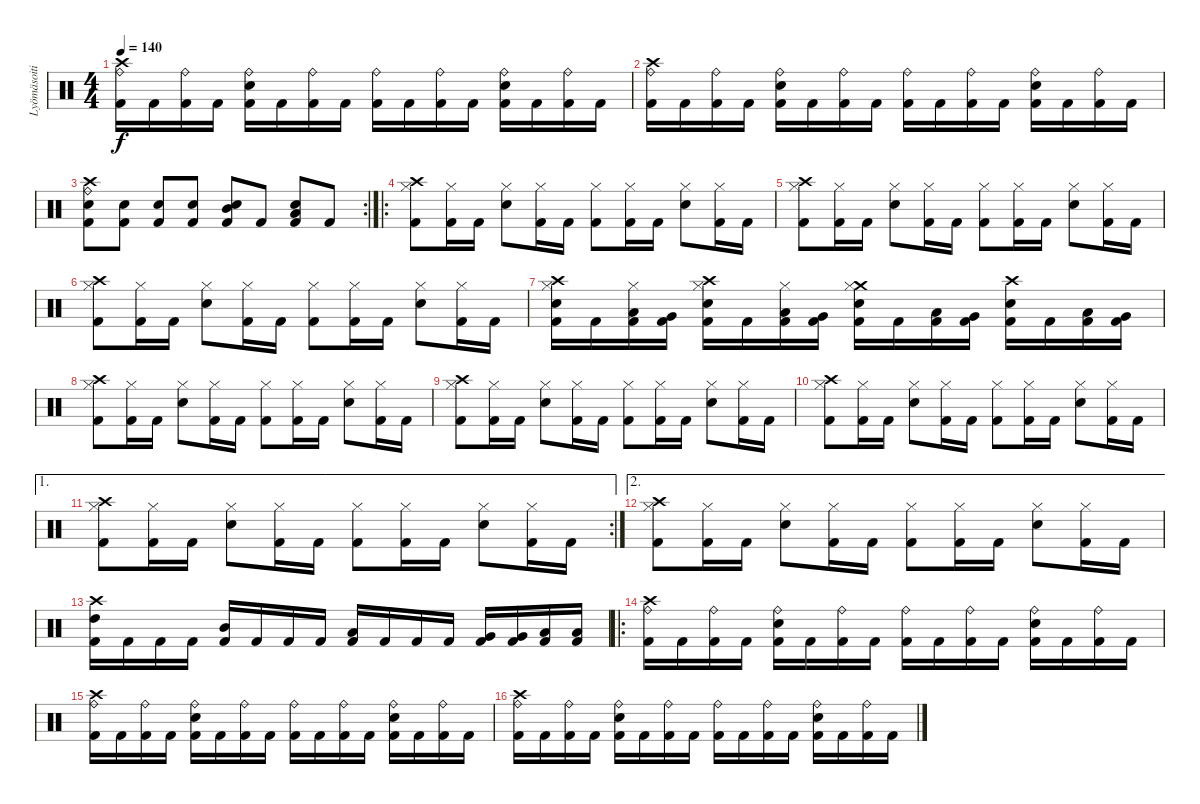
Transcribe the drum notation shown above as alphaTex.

\track ("Lyömäsoitin" "Lyömäsoiti") {instrument percussion}
\staff {score}
\articulation defaults
\ts (4 4)
\tempo 140
\clef neutral
\ks c
("Crash high (hit)" "Ride (bell)" "Kick (hit) 2").16{dy f} "Kick (hit) 2".16 ("Ride (bell)" "Kick (hit) 2").16 "Kick (hit) 2".16 ("Ride (bell)" "Electric Snare (hit)" "Kick (hit) 2").16 "Kick (hit) 2".16 ("Ride (bell)" "Kick (hit) 2").16 "Kick (hit) 2".16 ("Ride (bell)" "Kick (hit) 2").16 "Kick (hit) 2".16 ("Ride (bell)" "Kick (hit) 2").16 "Kick (hit) 2".16 ("Ride (bell)" "Electric Snare (hit)" "Kick (hit) 2").16 "Kick (hit) 2".16 ("Ride (bell)" "Kick (hit) 2").16 "Kick (hit) 2".16 |
("Crash high (hit)" "Ride (bell)" "Kick (hit) 2").16 "Kick (hit) 2".16 ("Ride (bell)" "Kick (hit) 2").16 "Kick (hit) 2".16 ("Ride (bell)" "Electric Snare (hit)" "Kick (hit) 2").16 "Kick (hit) 2".16 ("Ride (bell)" "Kick (hit) 2").16 "Kick (hit) 2".16 ("Ride (bell)" "Kick (hit) 2").16 "Kick (hit) 2".16 ("Ride (bell)" "Kick (hit) 2").16 "Kick (hit) 2".16 ("Ride (bell)" "Electric Snare (hit)" "Kick (hit) 2").16 "Kick (hit) 2".16 ("Ride (bell)" "Kick (hit) 2").16 "Kick (hit) 2".16 |
\rc 2
("Crash high (hit)" "Ride (bell)" "Electric Snare (hit)" "Kick (hit) 2").8 ("Electric Snare (hit)" "Kick (hit) 2").8 ("Electric Snare (hit)" "Kick (hit) 2").8 ("Electric Snare (hit)" "Kick (hit) 2").8 ("Mid Tom (hit)" "Electric Snare (hit)" "Kick (hit) 2").8 "Kick (hit) 2".8 ("Low Tom (hit)" "Electric Snare (hit)" "Kick (hit) 2").8 "Kick (hit) 2".8 |
\ro
("Crash high (hit)" "Hi-Hat (closed)" "Kick (hit) 2").8 ("Hi-Hat (closed)" "Kick (hit) 2").16 "Kick (hit) 2".16 ("Hi-Hat (closed)" "Electric Snare (hit)").8 ("Hi-Hat (closed)" "Kick (hit) 2").16 "Kick (hit) 2".16 ("Hi-Hat (closed)" "Kick (hit) 2").8 ("Hi-Hat (closed)" "Kick (hit) 2").16 "Kick (hit) 2".16 ("Hi-Hat (closed)" "Electric Snare (hit)").8 ("Hi-Hat (closed)" "Kick (hit) 2").16 "Kick (hit) 2".16 |
("Crash high (hit)" "Hi-Hat (closed)" "Kick (hit) 2").8 ("Hi-Hat (closed)" "Kick (hit) 2").16 "Kick (hit) 2".16 ("Hi-Hat (closed)" "Electric Snare (hit)").8 ("Hi-Hat (closed)" "Kick (hit) 2").16 "Kick (hit) 2".16 ("Hi-Hat (closed)" "Kick (hit) 2").8 ("Hi-Hat (closed)" "Kick (hit) 2").16 "Kick (hit) 2".16 ("Hi-Hat (closed)" "Electric Snare (hit)").8 ("Hi-Hat (closed)" "Kick (hit) 2").16 "Kick (hit) 2".16 |
("Crash high (hit)" "Hi-Hat (closed)" "Kick (hit) 2").8 ("Hi-Hat (closed)" "Kick (hit) 2").16 "Kick (hit) 2".16 ("Hi-Hat (closed)" "Electric Snare (hit)").8 ("Hi-Hat (closed)" "Kick (hit) 2").16 "Kick (hit) 2".16 ("Hi-Hat (closed)" "Kick (hit) 2").8 ("Hi-Hat (closed)" "Kick (hit) 2").16 "Kick (hit) 2".16 ("Hi-Hat (closed)" "Electric Snare (hit)").8 ("Hi-Hat (closed)" "Kick (hit) 2").16 "Kick (hit) 2".16 |
("Crash high (hit)" "Hi-Hat (closed)" "Electric Snare (hit)" "Kick (hit) 2").16 "Kick (hit) 2".16 ("Hi-Hat (closed)" "Low Tom (hit)" "Kick (hit) 2").16 ("Very Low Tom (hit)" "Kick (hit) 2").16 ("Crash high (hit)" "Hi-Hat (closed)" "Electric Snare (hit)" "Kick (hit) 2").16 "Kick (hit) 2".16 ("Hi-Hat (closed)" "Low Tom (hit)" "Kick (hit) 2").16 ("Very Low Tom (hit)" "Kick (hit) 2").16 ("Crash medium (hit)" "Hi-Hat (closed)" "Electric Snare (hit)" "Kick (hit) 2").16 "Kick (hit) 2".16 ("Low Tom (hit)" "Kick (hit) 2").16 ("Very Low Tom (hit)" "Kick (hit) 2").16 ("Crash high (hit)" "Electric Snare (hit)" "Kick (hit) 2").16 "Kick (hit) 2".16 ("Low Tom (hit)" "Kick (hit) 2").16 ("Very Low Tom (hit)" "Kick (hit) 2").16 |
("Crash high (hit)" "Hi-Hat (closed)" "Kick (hit) 2").8 ("Hi-Hat (closed)" "Kick (hit) 2").16 "Kick (hit) 2".16 ("Hi-Hat (closed)" "Electric Snare (hit)").8 ("Hi-Hat (closed)" "Kick (hit) 2").16 "Kick (hit) 2".16 ("Hi-Hat (closed)" "Kick (hit) 2").8 ("Hi-Hat (closed)" "Kick (hit) 2").16 "Kick (hit) 2".16 ("Hi-Hat (closed)" "Electric Snare (hit)").8 ("Hi-Hat (closed)" "Kick (hit) 2").16 "Kick (hit) 2".16 |
("Crash high (hit)" "Hi-Hat (closed)" "Kick (hit) 2").8 ("Hi-Hat (closed)" "Kick (hit) 2").16 "Kick (hit) 2".16 ("Hi-Hat (closed)" "Electric Snare (hit)").8 ("Hi-Hat (closed)" "Kick (hit) 2").16 "Kick (hit) 2".16 ("Hi-Hat (closed)" "Kick (hit) 2").8 ("Hi-Hat (closed)" "Kick (hit) 2").16 "Kick (hit) 2".16 ("Hi-Hat (closed)" "Electric Snare (hit)").8 ("Hi-Hat (closed)" "Kick (hit) 2").16 "Kick (hit) 2".16 |
("Crash high (hit)" "Hi-Hat (closed)" "Kick (hit) 2").8 ("Hi-Hat (closed)" "Kick (hit) 2").16 "Kick (hit) 2".16 ("Hi-Hat (closed)" "Electric Snare (hit)").8 ("Hi-Hat (closed)" "Kick (hit) 2").16 "Kick (hit) 2".16 ("Hi-Hat (closed)" "Kick (hit) 2").8 ("Hi-Hat (closed)" "Kick (hit) 2").16 "Kick (hit) 2".16 ("Hi-Hat (closed)" "Electric Snare (hit)").8 ("Hi-Hat (closed)" "Kick (hit) 2").16 "Kick (hit) 2".16 |
\ae 1
\rc 2
("Crash high (hit)" "Hi-Hat (closed)" "Kick (hit) 2").8 ("Hi-Hat (closed)" "Kick (hit) 2").16 "Kick (hit) 2".16 ("Hi-Hat (closed)" "Electric Snare (hit)").8 ("Hi-Hat (closed)" "Kick (hit) 2").16 "Kick (hit) 2".16 ("Hi-Hat (closed)" "Kick (hit) 2").8 ("Hi-Hat (closed)" "Kick (hit) 2").16 "Kick (hit) 2".16 ("Hi-Hat (closed)" "Electric Snare (hit)").8 ("Hi-Hat (closed)" "Kick (hit) 2").16 "Kick (hit) 2".16 |
\ae 2
("Crash high (hit)" "Hi-Hat (closed)" "Kick (hit) 2").8 ("Hi-Hat (closed)" "Kick (hit) 2").16 "Kick (hit) 2".16 ("Hi-Hat (closed)" "Electric Snare (hit)").8 ("Hi-Hat (closed)" "Kick (hit) 2").16 "Kick (hit) 2".16 ("Hi-Hat (closed)" "Kick (hit) 2").8 ("Hi-Hat (closed)" "Kick (hit) 2").16 "Kick (hit) 2".16 ("Hi-Hat (closed)" "Electric Snare (hit)").8 ("Hi-Hat (closed)" "Kick (hit) 2").16 "Kick (hit) 2".16 |
("Crash high (hit)" "High Tom (hit)" "Kick (hit) 2").16 "Kick (hit) 2".16 "Kick (hit) 2".16 "Kick (hit) 2".16 ("Mid Tom (hit)" "Kick (hit) 2").16 "Kick (hit) 2".16 "Kick (hit) 2".16 "Kick (hit) 2".16 ("Low Tom (hit)" "Kick (hit) 2").16 "Kick (hit) 2".16 "Kick (hit) 2".16 "Kick (hit) 2".16 ("Very Low Tom (hit)" "Kick (hit) 2").16 ("Very Low Tom (hit)" "Kick (hit) 2").16 ("Low Floor Tom (hit)" "Kick (hit) 2").16 ("Low Floor Tom (hit)" "Kick (hit) 2").16 |
\ro
("Crash high (hit)" "Ride (bell)" "Kick (hit) 2").16 "Kick (hit) 2".16 ("Ride (bell)" "Kick (hit) 2").16 "Kick (hit) 2".16 ("Ride (bell)" "Electric Snare (hit)" "Kick (hit) 2").16 "Kick (hit) 2".16 ("Ride (bell)" "Kick (hit) 2").16 "Kick (hit) 2".16 ("Ride (bell)" "Kick (hit) 2").16 "Kick (hit) 2".16 ("Ride (bell)" "Kick (hit) 2").16 "Kick (hit) 2".16 ("Ride (bell)" "Electric Snare (hit)" "Kick (hit) 2").16 "Kick (hit) 2".16 ("Ride (bell)" "Kick (hit) 2").16 "Kick (hit) 2".16 |
("Crash high (hit)" "Ride (bell)" "Kick (hit) 2").16 "Kick (hit) 2".16 ("Ride (bell)" "Kick (hit) 2").16 "Kick (hit) 2".16 ("Ride (bell)" "Electric Snare (hit)" "Kick (hit) 2").16 "Kick (hit) 2".16 ("Ride (bell)" "Kick (hit) 2").16 "Kick (hit) 2".16 ("Ride (bell)" "Kick (hit) 2").16 "Kick (hit) 2".16 ("Ride (bell)" "Kick (hit) 2").16 "Kick (hit) 2".16 ("Ride (bell)" "Electric Snare (hit)" "Kick (hit) 2").16 "Kick (hit) 2".16 ("Ride (bell)" "Kick (hit) 2").16 "Kick (hit) 2".16 |
("Crash high (hit)" "Ride (bell)" "Kick (hit) 2").16 "Kick (hit) 2".16 ("Ride (bell)" "Kick (hit) 2").16 "Kick (hit) 2".16 ("Ride (bell)" "Electric Snare (hit)" "Kick (hit) 2").16 "Kick (hit) 2".16 ("Ride (bell)" "Kick (hit) 2").16 "Kick (hit) 2".16 ("Ride (bell)" "Kick (hit) 2").16 "Kick (hit) 2".16 ("Ride (bell)" "Kick (hit) 2").16 "Kick (hit) 2".16 ("Ride (bell)" "Electric Snare (hit)" "Kick (hit) 2").16 "Kick (hit) 2".16 ("Ride (bell)" "Kick (hit) 2").16 "Kick (hit) 2".16
